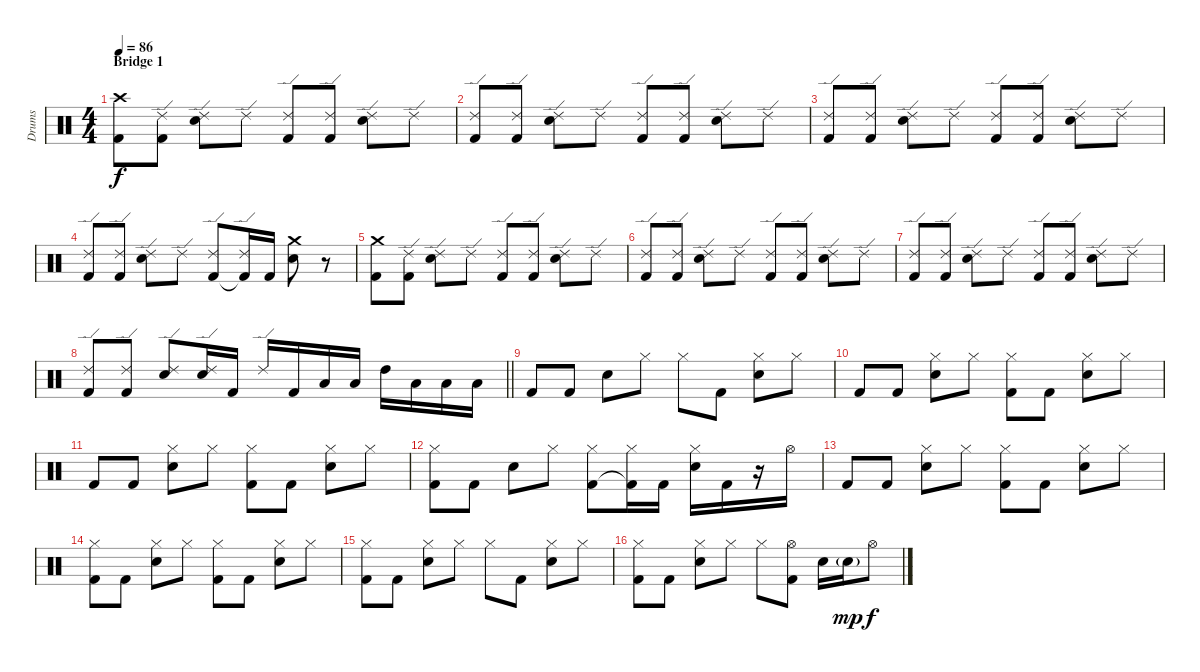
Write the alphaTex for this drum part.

\track ("Drums" "Drums") {instrument percussion}
\staff {score}
\articulation defaults
\ts (4 4)
\section ("" "Bridge 1")
\tempo 86
\clef neutral
\ks aminor
("Crash high (hit)" "Kick (hit) 2").8{dy f} ("Ride (edge) 2" "Kick (hit) 2").8 ("Ride (edge) 2" "Snare (hit) 2").8 "Ride (edge) 2".8 ("Ride (edge) 2" "Kick (hit) 2").8 ("Ride (edge) 2" "Kick (hit) 2").8 ("Ride (edge) 2" "Snare (hit) 2").8 "Ride (edge) 2".8 |
("Ride (edge) 2" "Kick (hit) 2").8 ("Ride (edge) 2" "Kick (hit) 2").8 ("Ride (edge) 2" "Snare (hit) 2").8 "Ride (edge) 2".8 ("Ride (edge) 2" "Kick (hit) 2").8 ("Ride (edge) 2" "Kick (hit) 2").8 ("Ride (edge) 2" "Snare (hit) 2").8 "Ride (edge) 2".8 |
("Ride (edge) 2" "Kick (hit) 2").8 ("Ride (edge) 2" "Kick (hit) 2").8 ("Ride (edge) 2" "Snare (hit) 2").8 "Ride (edge) 2".8 ("Ride (edge) 2" "Kick (hit) 2").8 ("Ride (edge) 2" "Kick (hit) 2").8 ("Ride (edge) 2" "Snare (hit) 2").8 "Ride (edge) 2".8 |
("Ride (edge) 2" "Kick (hit) 2").8 ("Ride (edge) 2" "Kick (hit) 2").8 ("Ride (edge) 2" "Snare (hit) 2").8 "Ride (edge) 2".8 ("Ride (edge) 2" "Kick (hit) 2").8 ("Ride (edge) 2" "Kick (hit) 2"{t}).16 "Kick (hit) 2".16 ("Crash medium (hit)" "Snare (hit) 2").8 r.8 |
("Crash medium (hit)" "Kick (hit) 2").8 ("Ride (edge) 2" "Kick (hit) 2").8 ("Ride (edge) 2" "Snare (hit) 2").8 "Ride (edge) 2".8 ("Ride (edge) 2" "Kick (hit) 2").8 ("Ride (edge) 2" "Kick (hit) 2").8 ("Ride (edge) 2" "Snare (hit) 2").8 "Ride (edge) 2".8 |
("Ride (edge) 2" "Kick (hit) 2").8 ("Ride (edge) 2" "Kick (hit) 2").8 ("Ride (edge) 2" "Snare (hit) 2").8 "Ride (edge) 2".8 ("Ride (edge) 2" "Kick (hit) 2").8 ("Ride (edge) 2" "Kick (hit) 2").8 ("Ride (edge) 2" "Snare (hit) 2").8 "Ride (edge) 2".8 |
("Ride (edge) 2" "Kick (hit) 2").8 ("Ride (edge) 2" "Kick (hit) 2").8 ("Ride (edge) 2" "Snare (hit) 2").8 "Ride (edge) 2".8 ("Ride (edge) 2" "Kick (hit) 2").8 ("Ride (edge) 2" "Kick (hit) 2").8 ("Ride (edge) 2" "Snare (hit) 2").8 "Ride (edge) 2".8 |
\barLineRight lightlight
("Ride (edge) 2" "Kick (hit) 2").8 ("Ride (edge) 2" "Kick (hit) 2").8 ("Ride (edge) 2" "Snare (hit) 2").8 ("Ride (edge) 2" "Snare (hit) 2").16 "Kick (hit) 2".16 "Ride (edge) 2".16 "Kick (hit) 2".16 "Low Tom (hit)".16 "Low Tom (hit)".16 "High Tom (hit)".16 "Low Floor Tom (hit)".16 "Low Floor Tom (hit)".16 "Low Floor Tom (hit)".16 |
\section ("" "")
"Kick (hit) 2".8 "Kick (hit) 2".8 "Snare (hit) 2".8 "Hi-Hat (closed)".8 "Hi-Hat (closed)".8 "Kick (hit) 2".8 ("Hi-Hat (closed)" "Snare (hit) 2").8 "Hi-Hat (closed)".8 |
"Kick (hit) 2".8 "Kick (hit) 2".8 ("Hi-Hat (closed)" "Snare (hit) 2").8 "Hi-Hat (closed)".8 ("Hi-Hat (closed)" "Kick (hit) 2").8 "Kick (hit) 2".8 ("Hi-Hat (closed)" "Snare (hit) 2").8 "Hi-Hat (closed)".8 |
"Kick (hit) 2".8 "Kick (hit) 2".8 ("Hi-Hat (closed)" "Snare (hit) 2").8 "Hi-Hat (closed)".8 ("Hi-Hat (closed)" "Kick (hit) 2").8 "Kick (hit) 2".8 ("Hi-Hat (closed)" "Snare (hit) 2").8 "Hi-Hat (closed)".8 |
("Hi-Hat (closed)" "Kick (hit) 2").8 "Kick (hit) 2".8 "Snare (hit) 2".8 "Hi-Hat (closed)".8 ("Hi-Hat (closed)" "Kick (hit) 2").8 ("Hi-Hat (closed)" "Kick (hit) 2"{t}).16 "Kick (hit) 2".16 ("Hi-Hat (closed)" "Snare (hit) 2").16 "Kick (hit) 2".16 r.16 "Hi-Hat (open)".16 |
"Kick (hit) 2".8 "Kick (hit) 2".8 ("Hi-Hat (closed)" "Snare (hit) 2").8 "Hi-Hat (closed)".8 ("Hi-Hat (closed)" "Kick (hit) 2").8 "Kick (hit) 2".8 ("Hi-Hat (closed)" "Snare (hit) 2").8 "Hi-Hat (closed)".8 |
("Hi-Hat (closed)" "Kick (hit) 2").8 "Kick (hit) 2".8 ("Hi-Hat (closed)" "Snare (hit) 2").8 "Hi-Hat (closed)".8 ("Hi-Hat (closed)" "Kick (hit) 2").8 "Kick (hit) 2".8 ("Hi-Hat (closed)" "Snare (hit) 2").8 "Hi-Hat (closed)".8 |
("Hi-Hat (closed)" "Kick (hit) 2").8 "Kick (hit) 2".8 ("Hi-Hat (closed)" "Snare (hit) 2").8 "Hi-Hat (closed)".8 "Hi-Hat (closed)".8 "Kick (hit) 2".8 ("Hi-Hat (closed)" "Snare (hit) 2").8 "Hi-Hat (closed)".8 |
("Hi-Hat (closed)" "Kick (hit) 2").8 "Kick (hit) 2".8 ("Hi-Hat (closed)" "Snare (hit) 2").8 "Hi-Hat (closed)".8 "Hi-Hat (closed)".8 ("Hi-Hat (open)" "Kick (hit) 2").8 "Snare (hit) 2".16 "Snare (hit) 2"{g}.16{dy mp} "Hi-Hat (open)".8{dy f}
